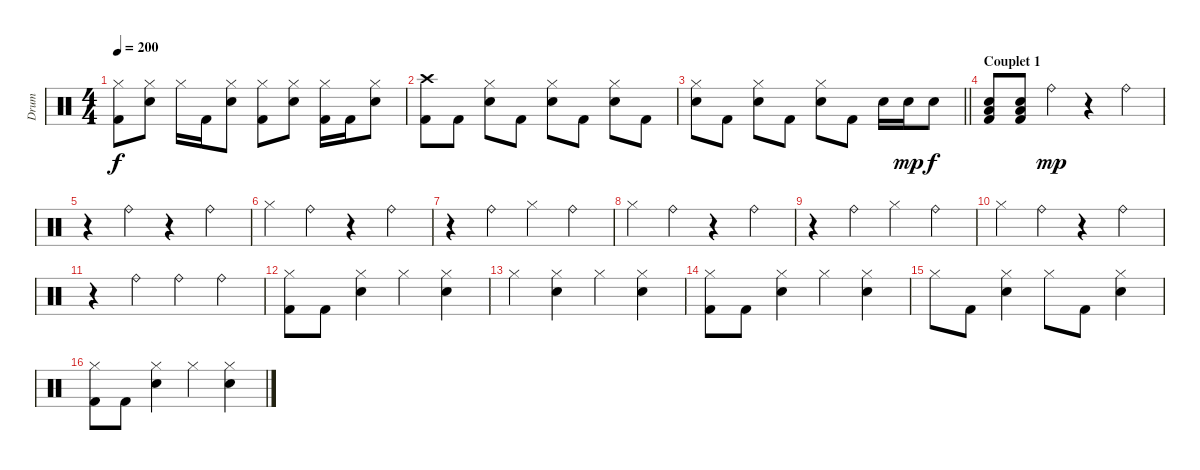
\track ("Drum" "Drum") {instrument percussion}
\staff {score}
\articulation defaults
\ts (4 4)
\tempo 200
\clef neutral
\ks c
("Hi-Hat (closed)" "Kick (hit) 2").8{dy f} ("Hi-Hat (closed)" "Snare (hit) 2").8 "Hi-Hat (closed)".16 "Kick (hit) 2".16 ("Hi-Hat (closed)" "Snare (hit) 2").8 ("Hi-Hat (closed)" "Kick (hit) 2").8 ("Hi-Hat (closed)" "Snare (hit) 2").8 ("Hi-Hat (closed)" "Kick (hit) 2").16 "Kick (hit) 2".16 ("Hi-Hat (closed)" "Snare (hit) 2").8 |
("Crash high (hit)" "Kick (hit) 2").8 "Kick (hit) 2".8 ("Hi-Hat (closed)" "Snare (hit) 2").8 "Kick (hit) 2".8 ("Hi-Hat (closed)" "Snare (hit) 2").8 "Kick (hit) 2".8 ("Hi-Hat (closed)" "Snare (hit) 2").8 "Kick (hit) 2".8 |
\barLineRight lightlight
("Hi-Hat (closed)" "Snare (hit) 2").8 "Kick (hit) 2".8 ("Hi-Hat (closed)" "Snare (hit) 2").8 "Kick (hit) 2".8 ("Hi-Hat (closed)" "Snare (hit) 2").8 "Kick (hit) 2".8 "Snare (hit) 2".16 "Snare (hit) 2".16{dy mp} "Snare (hit) 2".8{dy f} |
\section ("" "Couplet 1")
("Low Tom (hit)" "Snare (hit) 2" "Kick (hit) 2").8 ("Low Tom (hit)" "Snare (hit) 2" "Kick (hit) 2").8 "Ride (bell)".4{dy mp} r.4 "Ride (bell)".4 |
r.4 "Ride (bell)".4 r.4 "Ride (bell)".4 |
"Hi-Hat (closed)".4 "Ride (bell)".4 r.4 "Ride (bell)".4 |
r.4 "Ride (bell)".4 "Hi-Hat (closed)".4 "Ride (bell)".4 |
"Hi-Hat (closed)".4 "Ride (bell)".4 r.4 "Ride (bell)".4 |
r.4 "Ride (bell)".4 "Hi-Hat (closed)".4 "Ride (bell)".4 |
"Hi-Hat (closed)".4 "Ride (bell)".4 r.4 "Ride (bell)".4 |
r.4 "Ride (bell)".4 "Ride (bell)".4 "Ride (bell)".4 |
("Hi-Hat (closed)" "Kick (hit) 2").8 "Kick (hit) 2".8 ("Hi-Hat (closed)" "Snare (hit) 2").4 "Hi-Hat (closed)".4 ("Hi-Hat (closed)" "Snare (hit) 2").4 |
"Hi-Hat (closed)".4 ("Hi-Hat (closed)" "Snare (hit) 2").4 "Hi-Hat (closed)".4 ("Hi-Hat (closed)" "Snare (hit) 2").4 |
("Hi-Hat (closed)" "Kick (hit) 2").8 "Kick (hit) 2".8 ("Hi-Hat (closed)" "Snare (hit) 2").4 "Hi-Hat (closed)".4 ("Hi-Hat (closed)" "Snare (hit) 2").4 |
"Hi-Hat (closed)".8 "Kick (hit) 2".8 ("Hi-Hat (closed)" "Snare (hit) 2").4 "Hi-Hat (closed)".8 "Kick (hit) 2".8 ("Hi-Hat (closed)" "Snare (hit) 2").4 |
("Hi-Hat (closed)" "Kick (hit) 2").8 "Kick (hit) 2".8 ("Hi-Hat (closed)" "Snare (hit) 2").4 "Hi-Hat (closed)".4 ("Hi-Hat (closed)" "Snare (hit) 2").4
